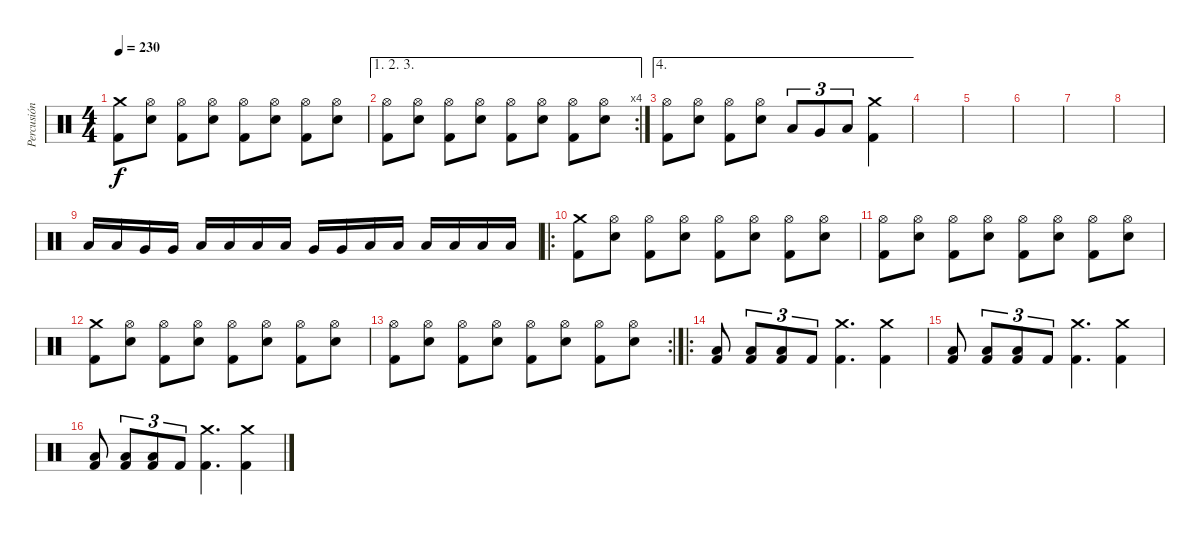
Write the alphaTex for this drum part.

\track ("Percusión" "Percusión") {instrument percussion}
\staff {score}
\articulation defaults
\ts (4 4)
\tempo 230
\clef neutral
\ks c
("Crash medium (hit)" "Kick (hit) 2").8{dy f} ("Hi-Hat (open)" "Electric Snare (hit)").8 ("Hi-Hat (open)" "Kick (hit) 2").8 ("Hi-Hat (open)" "Electric Snare (hit)").8 ("Hi-Hat (open)" "Kick (hit) 2").8 ("Hi-Hat (open)" "Electric Snare (hit)").8 ("Hi-Hat (open)" "Kick (hit) 2").8 ("Hi-Hat (open)" "Electric Snare (hit)").8 |
\ae (1 2 3)
\rc 4
("Hi-Hat (open)" "Kick (hit) 2").8 ("Hi-Hat (open)" "Electric Snare (hit)").8 ("Hi-Hat (open)" "Kick (hit) 2").8 ("Hi-Hat (open)" "Electric Snare (hit)").8 ("Hi-Hat (open)" "Kick (hit) 2").8 ("Hi-Hat (open)" "Electric Snare (hit)").8 ("Hi-Hat (open)" "Kick (hit) 2").8 ("Hi-Hat (open)" "Electric Snare (hit)").8 |
\ae 4
("Hi-Hat (open)" "Kick (hit) 2").8 ("Hi-Hat (open)" "Electric Snare (hit)").8 ("Hi-Hat (open)" "Kick (hit) 2").8 ("Hi-Hat (open)" "Electric Snare (hit)").8 "Low Tom (hit)".8{tu (3 2)} "Very Low Tom (hit)".8{tu (3 2)} "Low Floor Tom (hit)".8{tu (3 2)} ("Crash medium (hit)" "Kick (hit) 2").4 |
|
|
|
|
|
"Low Tom (hit)".16 "Low Tom (hit)".16 "Very Low Tom (hit)".16 "Very Low Tom (hit)".16 "Low Floor Tom (hit)".16 "Low Floor Tom (hit)".16 "Low Tom (hit)".16 "Low Tom (hit)".16 "Very Low Tom (hit)".16 "Very Low Tom (hit)".16 "Low Floor Tom (hit)".16 "Low Floor Tom (hit)".16 "Low Tom (hit)".16 "Low Tom (hit)".16 "Low Tom (hit)".16 "Low Tom (hit)".16 |
\ro
("Crash medium (hit)" "Kick (hit) 2").8 ("Hi-Hat (open)" "Electric Snare (hit)").8 ("Hi-Hat (open)" "Kick (hit) 2").8 ("Hi-Hat (open)" "Electric Snare (hit)").8 ("Hi-Hat (open)" "Kick (hit) 2").8 ("Hi-Hat (open)" "Electric Snare (hit)").8 ("Hi-Hat (open)" "Kick (hit) 2").8 ("Hi-Hat (open)" "Electric Snare (hit)").8 |
("Hi-Hat (open)" "Kick (hit) 2").8 ("Hi-Hat (open)" "Electric Snare (hit)").8 ("Hi-Hat (open)" "Kick (hit) 2").8 ("Hi-Hat (open)" "Electric Snare (hit)").8 ("Hi-Hat (open)" "Kick (hit) 2").8 ("Hi-Hat (open)" "Electric Snare (hit)").8 ("Hi-Hat (open)" "Kick (hit) 2").8 ("Hi-Hat (open)" "Electric Snare (hit)").8 |
("Crash medium (hit)" "Kick (hit) 2").8 ("Hi-Hat (open)" "Electric Snare (hit)").8 ("Hi-Hat (open)" "Kick (hit) 2").8 ("Hi-Hat (open)" "Electric Snare (hit)").8 ("Hi-Hat (open)" "Kick (hit) 2").8 ("Hi-Hat (open)" "Electric Snare (hit)").8 ("Hi-Hat (open)" "Kick (hit) 2").8 ("Hi-Hat (open)" "Electric Snare (hit)").8 |
\rc 2
("Hi-Hat (open)" "Kick (hit) 2").8 ("Hi-Hat (open)" "Electric Snare (hit)").8 ("Hi-Hat (open)" "Kick (hit) 2").8 ("Hi-Hat (open)" "Electric Snare (hit)").8 ("Hi-Hat (open)" "Kick (hit) 2").8 ("Hi-Hat (open)" "Electric Snare (hit)").8 ("Hi-Hat (open)" "Kick (hit) 2").8 ("Hi-Hat (open)" "Electric Snare (hit)").8 |
\ro
("Low Tom (hit)" "Kick (hit) 2").8 ("Low Tom (hit)" "Kick (hit) 2").8{tu (3 2)} ("Low Floor Tom (hit)" "Kick (hit) 2").8{tu (3 2)} "Kick (hit) 2".8{tu (3 2)} ("Crash medium (hit)" "Kick (hit) 2").4{d} ("Crash medium (hit)" "Kick (hit) 2").4 |
("Low Tom (hit)" "Kick (hit) 2").8 ("Low Tom (hit)" "Kick (hit) 2").8{tu (3 2)} ("Low Floor Tom (hit)" "Kick (hit) 2").8{tu (3 2)} "Kick (hit) 2".8{tu (3 2)} ("Crash medium (hit)" "Kick (hit) 2").4{d} ("Crash medium (hit)" "Kick (hit) 2").4 |
("Low Tom (hit)" "Kick (hit) 2").8 ("Low Tom (hit)" "Kick (hit) 2").8{tu (3 2)} ("Low Floor Tom (hit)" "Kick (hit) 2").8{tu (3 2)} "Kick (hit) 2".8{tu (3 2)} ("Crash medium (hit)" "Kick (hit) 2").4{d} ("Crash medium (hit)" "Kick (hit) 2").4
